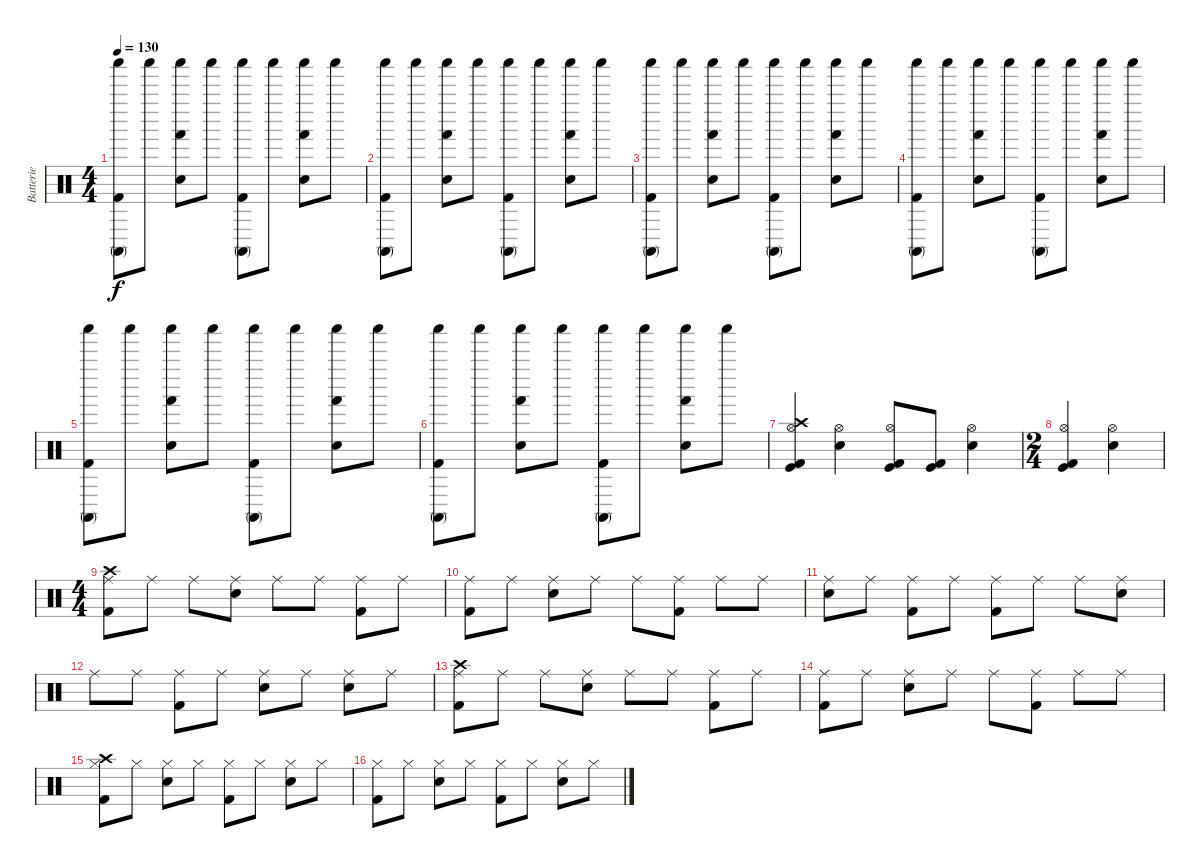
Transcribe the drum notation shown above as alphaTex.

\track ("Batterie" "Batterie") {instrument percussion}
\staff {score}
\articulation defaults
\ts (4 4)
\tempo 130
\clef neutral
\ks c
("Shaker (hit)" "Kick (hit) 2" "Conga high (mute)").8{dy f} "Shaker (hit)".8 ("Shaker (hit)" "Electric Snare (hit)" "Hand (hit)").8 "Shaker (hit)".8 ("Shaker (hit)" "Kick (hit) 2" "Conga high (mute)").8 "Shaker (hit)".8 ("Shaker (hit)" "Electric Snare (hit)" "Hand (hit)").8 "Shaker (hit)".8 |
("Shaker (hit)" "Kick (hit) 2" "Conga high (mute)").8 "Shaker (hit)".8 ("Shaker (hit)" "Electric Snare (hit)" "Hand (hit)").8 "Shaker (hit)".8 ("Shaker (hit)" "Kick (hit) 2" "Conga high (mute)").8 "Shaker (hit)".8 ("Shaker (hit)" "Electric Snare (hit)" "Hand (hit)").8 "Shaker (hit)".8 |
("Shaker (hit)" "Kick (hit) 2" "Conga high (mute)").8 "Shaker (hit)".8 ("Shaker (hit)" "Electric Snare (hit)" "Hand (hit)").8 "Shaker (hit)".8 ("Shaker (hit)" "Kick (hit) 2" "Conga high (mute)").8 "Shaker (hit)".8 ("Shaker (hit)" "Electric Snare (hit)" "Hand (hit)").8 "Shaker (hit)".8 |
("Shaker (hit)" "Kick (hit) 2" "Conga high (mute)").8 "Shaker (hit)".8 ("Shaker (hit)" "Electric Snare (hit)" "Hand (hit)").8 "Shaker (hit)".8 ("Shaker (hit)" "Kick (hit) 2" "Conga high (mute)").8 "Shaker (hit)".8 ("Shaker (hit)" "Electric Snare (hit)" "Hand (hit)").8 "Shaker (hit)".8 |
("Shaker (hit)" "Kick (hit) 2" "Conga high (mute)").8 "Shaker (hit)".8 ("Shaker (hit)" "Electric Snare (hit)" "Hand (hit)").8 "Shaker (hit)".8 ("Shaker (hit)" "Kick (hit) 2" "Conga high (mute)").8 "Shaker (hit)".8 ("Shaker (hit)" "Electric Snare (hit)" "Hand (hit)").8 "Shaker (hit)".8 |
("Shaker (hit)" "Kick (hit) 2" "Conga high (mute)").8 "Shaker (hit)".8 ("Shaker (hit)" "Electric Snare (hit)" "Hand (hit)").8 "Shaker (hit)".8 ("Shaker (hit)" "Kick (hit) 2" "Conga high (mute)").8 "Shaker (hit)".8 ("Shaker (hit)" "Electric Snare (hit)" "Hand (hit)").8 "Shaker (hit)".8 |
("Hi-Hat (open)" "Crash high (hit)" "Kick (hit) 2" "Kick (hit)").4 ("Hi-Hat (open)" "Electric Snare (hit)").4 ("Hi-Hat (open)" "Kick (hit)" "Kick (hit) 2").8 ("Kick (hit) 2" "Kick (hit)").8 ("Hi-Hat (open)" "Electric Snare (hit)").4 |
\ts (2 4)
("Hi-Hat (open)" "Kick (hit) 2" "Kick (hit)").4 ("Hi-Hat (open)" "Electric Snare (hit)").4 |
\ts (4 4)
("Ride (middle)" "Crash high (hit)" "Kick (hit) 2").8 "Ride (middle)".8 "Ride (middle)".8 ("Ride (middle)" "Electric Snare (hit)").8 "Ride (middle)".8 "Ride (middle)".8 ("Ride (middle)" "Kick (hit) 2").8 "Ride (middle)".8 |
("Ride (middle)" "Kick (hit) 2").8 "Ride (middle)".8 ("Ride (middle)" "Electric Snare (hit)").8 "Ride (middle)".8 "Ride (middle)".8 ("Ride (middle)" "Kick (hit) 2").8 "Ride (middle)".8 "Ride (middle)".8 |
("Ride (middle)" "Electric Snare (hit)").8 "Ride (middle)".8 ("Ride (middle)" "Kick (hit) 2").8 "Ride (middle)".8 ("Ride (middle)" "Kick (hit) 2").8 "Ride (middle)".8 "Ride (middle)".8 ("Ride (middle)" "Electric Snare (hit)").8 |
"Ride (middle)".8 "Ride (middle)".8 ("Ride (middle)" "Kick (hit) 2").8 "Ride (middle)".8 ("Ride (middle)" "Electric Snare (hit)").8 "Ride (middle)".8 ("Ride (middle)" "Electric Snare (hit)").8 "Ride (middle)".8 |
("Ride (middle)" "Crash high (hit)" "Kick (hit) 2").8 "Ride (middle)".8 "Ride (middle)".8 ("Ride (middle)" "Electric Snare (hit)").8 "Ride (middle)".8 "Ride (middle)".8 ("Ride (middle)" "Kick (hit) 2").8 "Ride (middle)".8 |
("Ride (middle)" "Kick (hit) 2").8 "Ride (middle)".8 ("Ride (middle)" "Electric Snare (hit)").8 "Ride (middle)".8 "Ride (middle)".8 ("Ride (middle)" "Kick (hit) 2").8 "Ride (middle)".8 "Ride (middle)".8 |
("Hi-Hat (closed)" "Kick (hit) 2" "Crash high (hit)").8 "Hi-Hat (closed)".8 ("Hi-Hat (closed)" "Electric Snare (hit)").8 "Hi-Hat (closed)".8 ("Hi-Hat (closed)" "Kick (hit) 2").8 "Hi-Hat (closed)".8 ("Hi-Hat (closed)" "Electric Snare (hit)").8 "Hi-Hat (closed)".8 |
("Hi-Hat (closed)" "Kick (hit) 2").8 "Hi-Hat (closed)".8 ("Hi-Hat (closed)" "Electric Snare (hit)").8 "Hi-Hat (closed)".8 ("Hi-Hat (closed)" "Kick (hit) 2").8 "Hi-Hat (closed)".8 ("Hi-Hat (closed)" "Electric Snare (hit)").8 "Hi-Hat (closed)".8
